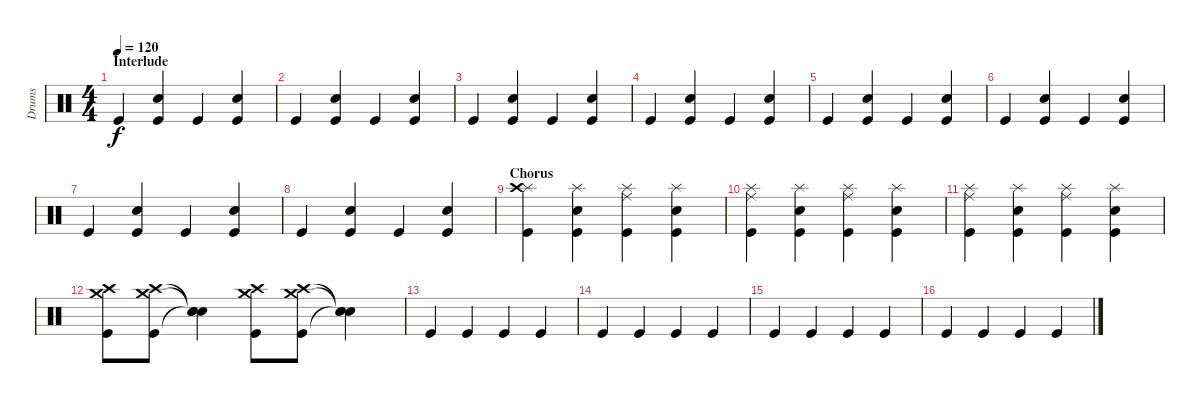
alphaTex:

\track ("Drums" "Drums") {instrument percussion}
\staff {score}
\articulation defaults
\ts (4 4)
\section ("" "Interlude")
\tempo 120
\clef neutral
\ks c "Kick (hit)".4{dy f}
("Snare (hit) 2" "Kick (hit)").4 "Kick (hit)".4 ("Snare (hit) 2" "Kick (hit)").4 |
"Kick (hit)".4 ("Snare (hit) 2" "Kick (hit)").4 "Kick (hit)".4 ("Snare (hit) 2" "Kick (hit)").4 |
"Kick (hit)".4 ("Snare (hit) 2" "Kick (hit)").4 "Kick (hit)".4 ("Snare (hit) 2" "Kick (hit)").4 |
"Kick (hit)".4 ("Snare (hit) 2" "Kick (hit)").4 "Kick (hit)".4 ("Snare (hit) 2" "Kick (hit)").4 |
"Kick (hit)".4 ("Snare (hit) 2" "Kick (hit)").4 "Kick (hit)".4 ("Snare (hit) 2" "Kick (hit)").4 |
"Kick (hit)".4 ("Snare (hit) 2" "Kick (hit)").4 "Kick (hit)".4 ("Snare (hit) 2" "Kick (hit)").4 |
"Kick (hit)".4 ("Snare (hit) 2" "Kick (hit)").4 "Kick (hit)".4 ("Snare (hit) 2" "Kick (hit)").4 |
"Kick (hit)".4 ("Snare (hit) 2" "Kick (hit)").4 "Kick (hit)".4 ("Snare (hit) 2" "Kick (hit)").4 |
\section ("" "Chorus")
("Splash (hit)" "Crash high (hit)" "Kick (hit)").4 ("Splash (hit)" "Snare (hit) 2" "Kick (hit)").4 ("Splash (hit)" "Ride (middle)" "Kick (hit)").4 ("Splash (hit)" "Snare (hit) 2" "Kick (hit)").4 |
("Splash (hit)" "Ride (middle)" "Kick (hit)").4 ("Splash (hit)" "Snare (hit) 2" "Kick (hit)").4 ("Splash (hit)" "Ride (middle)" "Kick (hit)").4 ("Splash (hit)" "Snare (hit) 2" "Kick (hit)").4 |
("Splash (hit)" "Ride (middle)" "Kick (hit)").4 ("Splash (hit)" "Snare (hit) 2" "Kick (hit)").4 ("Splash (hit)" "Ride (middle)" "Kick (hit)").4 ("Splash (hit)" "Snare (hit) 2" "Kick (hit)").4 |
("Crash medium (hit)" "Crash high (hit)" "Kick (hit)").8 ("Crash medium (hit)" "Crash high (hit)" "Kick (hit)").8 ("Snare (hit)"{t} "Snare (hit)"{t} "Snare (hit)"{t}).4 ("Crash medium (hit)" "Crash high (hit)" "Kick (hit)").8 ("Crash medium (hit)" "Crash high (hit)" "Kick (hit)").8 ("Snare (hit)"{t} "Snare (hit)"{t} "Snare (hit)"{t}).4 |
"Kick (hit)".4 "Kick (hit)".4 "Kick (hit)".4 "Kick (hit)".4 |
"Kick (hit)".4 "Kick (hit)".4 "Kick (hit)".4 "Kick (hit)".4 |
"Kick (hit)".4 "Kick (hit)".4 "Kick (hit)".4 "Kick (hit)".4 |
"Kick (hit)".4 "Kick (hit)".4 "Kick (hit)".4 "Kick (hit)".4
